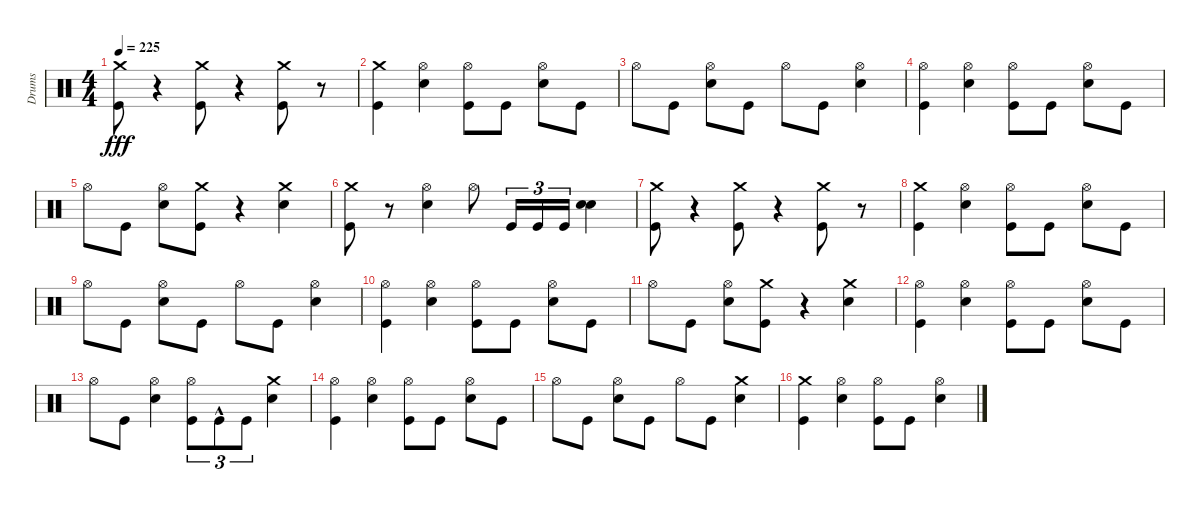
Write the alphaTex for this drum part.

\track ("Drums" "Drums") {instrument percussion}
\staff {score}
\articulation defaults
\ts (4 4)
\tempo 225
\clef neutral
\ks c
("Crash medium (hit)" "Kick (hit)").8{dy fff} r.4 ("Kick (hit)" "Crash medium (hit)").8 r.4 ("Crash medium (hit)" "Kick (hit)").8 r.8 |
("Kick (hit)" "Crash medium (hit)").4 ("Snare (hit) 2" "Hi-Hat (open)").4 ("Kick (hit)" "Hi-Hat (open)").8 "Kick (hit)".8 ("Snare (hit) 2" "Hi-Hat (open)").8 "Kick (hit)".8 |
"Hi-Hat (open)".8 "Kick (hit)".8 ("Snare (hit) 2" "Hi-Hat (open)").8 "Kick (hit)".8 "Hi-Hat (open)".8 "Kick (hit)".8 ("Snare (hit) 2" "Hi-Hat (open)").4 |
("Kick (hit)" "Hi-Hat (open)").4 ("Snare (hit) 2" "Hi-Hat (open)").4 ("Kick (hit)" "Hi-Hat (open)").8 "Kick (hit)".8 ("Snare (hit) 2" "Hi-Hat (open)").8 "Kick (hit)".8 |
"Hi-Hat (open)".8 "Kick (hit)".8 ("Snare (hit) 2" "Hi-Hat (open)").8 ("Crash medium (hit)" "Kick (hit)").8 r.4 ("Crash medium (hit)" "Snare (hit) 2").4 |
("Crash medium (hit)" "Kick (hit)").8 r.8 ("Snare (hit) 2" "Hi-Hat (open)").4 "Hi-Hat (open)".8 "Kick (hit)".16{tu (3 2)} "Kick (hit)".16{tu (3 2)} "Kick (hit)".16{tu (3 2)} ("Snare (hit) 2" "Snare (hit) 2").4 |
("Crash medium (hit)" "Kick (hit)").8 r.4 ("Kick (hit)" "Crash medium (hit)").8 r.4 ("Kick (hit)" "Crash medium (hit)").8 r.8 |
("Crash medium (hit)" "Kick (hit)").4 ("Snare (hit) 2" "Hi-Hat (open)").4 ("Kick (hit)" "Hi-Hat (open)").8 "Kick (hit)".8 ("Snare (hit) 2" "Hi-Hat (open)").8 "Kick (hit)".8 |
"Hi-Hat (open)".8 "Kick (hit)".8 ("Snare (hit) 2" "Hi-Hat (open)").8 "Kick (hit)".8 "Hi-Hat (open)".8 "Kick (hit)".8 ("Snare (hit) 2" "Hi-Hat (open)").4 |
("Kick (hit)" "Hi-Hat (open)").4 ("Snare (hit) 2" "Hi-Hat (open)").4 ("Kick (hit)" "Hi-Hat (open)").8 "Kick (hit)".8 ("Snare (hit) 2" "Hi-Hat (open)").8 "Kick (hit)".8 |
"Hi-Hat (open)".8 "Kick (hit)".8 ("Snare (hit) 2" "Hi-Hat (open)").8 ("Crash medium (hit)" "Kick (hit)").8 r.4 ("Snare (hit) 2" "Crash medium (hit)").4 |
("Kick (hit)" "Hi-Hat (open)").4 ("Snare (hit) 2" "Hi-Hat (open)").4 ("Kick (hit)" "Hi-Hat (open)").8 "Kick (hit)".8 ("Snare (hit) 2" "Hi-Hat (open)").8 "Kick (hit)".8 |
"Hi-Hat (open)".8 "Kick (hit)".8 ("Snare (hit) 2" "Hi-Hat (open)").4 ("Kick (hit)" "Hi-Hat (open)").8{tu (3 2)} "Kick (hit)"{hac}.8{tu (3 2)} "Kick (hit)".8{tu (3 2)} ("Crash medium (hit)" "Snare (hit) 2").4 |
("Kick (hit)" "Hi-Hat (open)").4 ("Snare (hit) 2" "Hi-Hat (open)").4 ("Kick (hit)" "Hi-Hat (open)").8 "Kick (hit)".8 ("Snare (hit) 2" "Hi-Hat (open)").8 "Kick (hit)".8 |
"Hi-Hat (open)".8 "Kick (hit)".8 ("Snare (hit) 2" "Hi-Hat (open)").8 "Kick (hit)".8 "Hi-Hat (open)".8 "Kick (hit)".8 ("Crash medium (hit)" "Snare (hit) 2").4 |
("Kick (hit)" "Crash medium (hit)").4 ("Snare (hit) 2" "Hi-Hat (open)").4 ("Kick (hit)" "Hi-Hat (open)").8 "Kick (hit)".8 ("Snare (hit) 2" "Hi-Hat (open)").4
